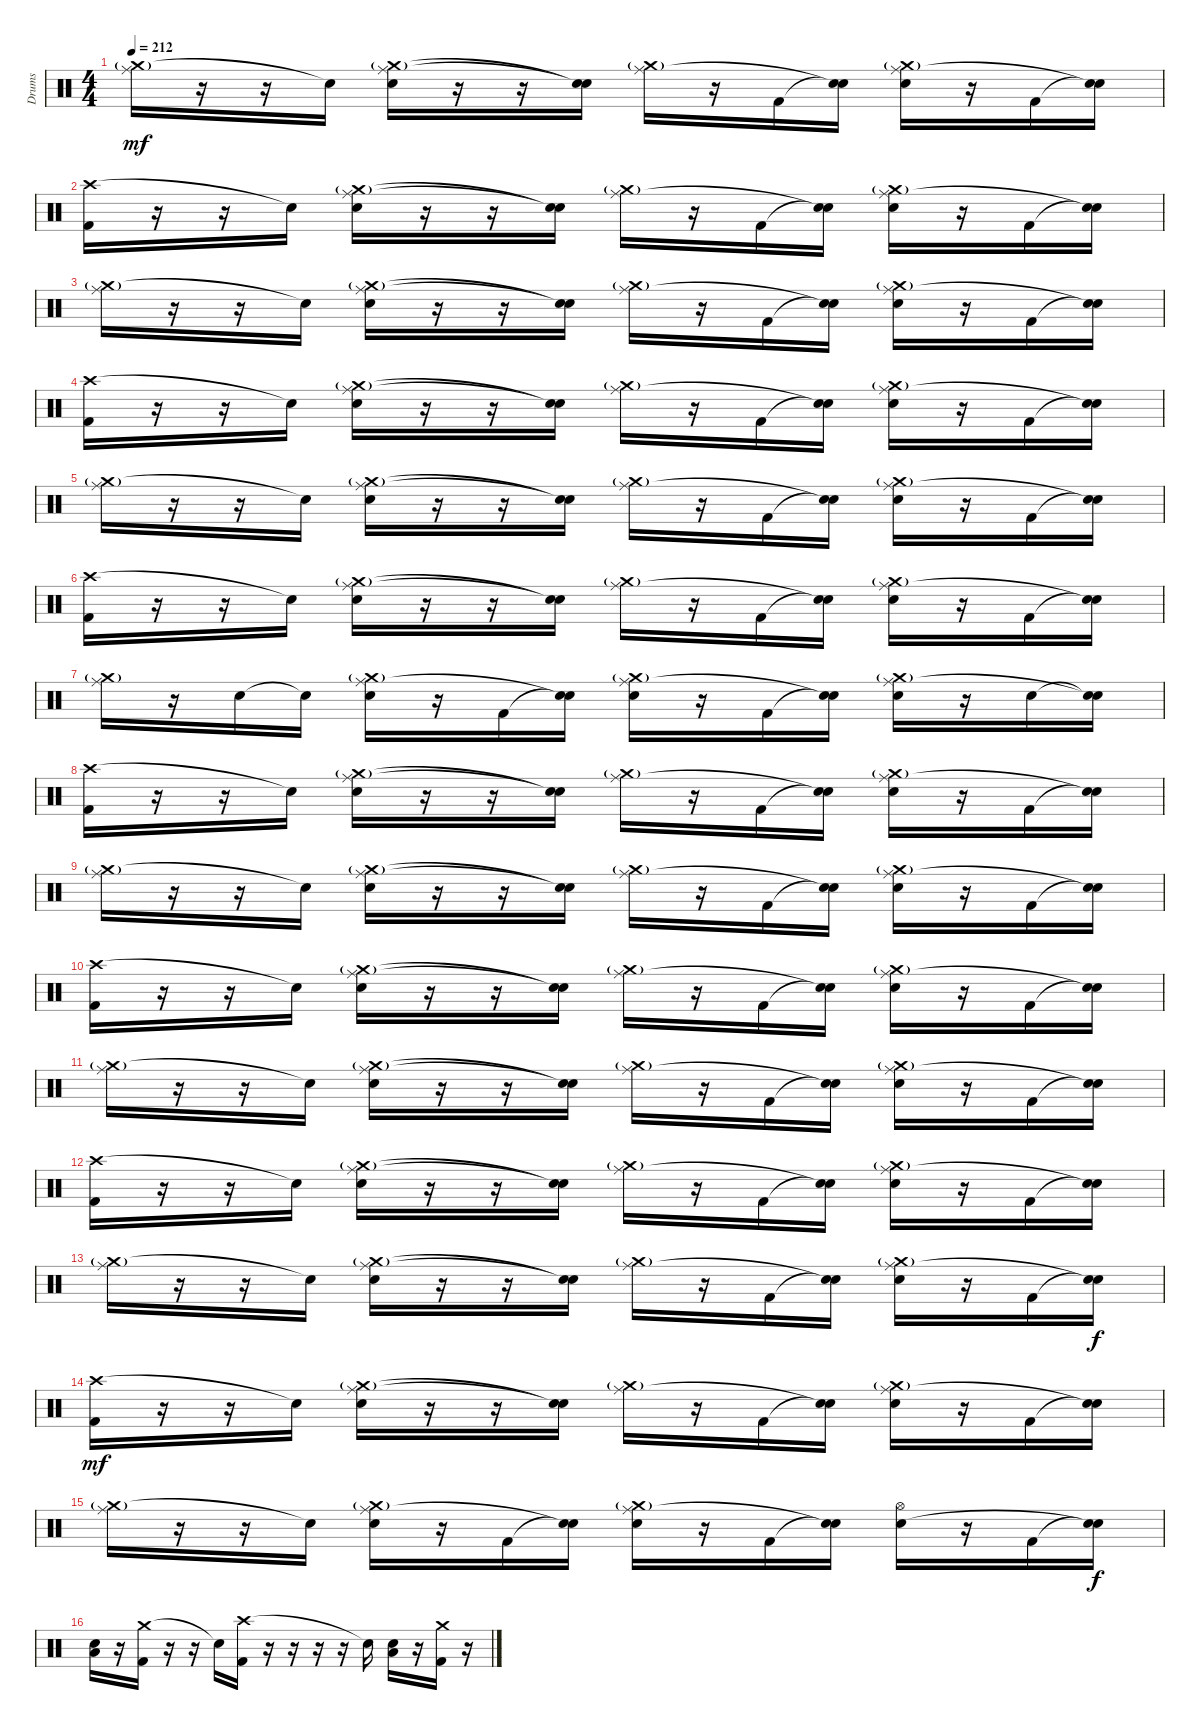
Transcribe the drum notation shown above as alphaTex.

\track ("Drums" "Drums") {instrument percussion}
\staff {score}
\articulation defaults
\ts (4 4)
\tempo 212
\clef neutral
\ks c
("Crash medium (hit)"{g} "Ride (middle)").16{dy mf} r.16 r.16 "Snare (hit)"{t}.16 ("Crash medium (hit)"{g} "Ride (middle)" "Electric Snare (hit)").16 r.16 r.16 ("Snare (hit)"{t} "Snare (hit)"{t}).16 ("Crash medium (hit)"{g} "Ride (middle)").16 r.16 "Kick (hit) 2".16 ("Snare (hit)"{t} "Snare (hit)"{t}).16 ("Crash medium (hit)"{g} "Ride (middle)" "Electric Snare (hit)").16 r.16 "Kick (hit) 2".16 ("Snare (hit)"{t} "Snare (hit)"{t}).16 |
("Crash high (hit)" "Kick (hit) 2").16 r.16 r.16 "Snare (hit)"{t}.16 ("Crash medium (hit)"{g} "Ride (middle)" "Electric Snare (hit)").16 r.16 r.16 ("Snare (hit)"{t} "Snare (hit)"{t}).16 ("Crash medium (hit)"{g} "Ride (middle)").16 r.16 "Kick (hit) 2".16 ("Snare (hit)"{t} "Snare (hit)"{t}).16 ("Crash medium (hit)"{g} "Ride (middle)" "Electric Snare (hit)").16 r.16 "Kick (hit) 2".16 ("Snare (hit)"{t} "Snare (hit)"{t}).16 |
("Crash medium (hit)"{g} "Ride (middle)").16 r.16 r.16 "Snare (hit)"{t}.16 ("Crash medium (hit)"{g} "Ride (middle)" "Electric Snare (hit)").16 r.16 r.16 ("Snare (hit)"{t} "Snare (hit)"{t}).16 ("Crash medium (hit)"{g} "Ride (middle)").16 r.16 "Kick (hit) 2".16 ("Snare (hit)"{t} "Snare (hit)"{t}).16 ("Crash medium (hit)"{g} "Ride (middle)" "Electric Snare (hit)").16 r.16 "Kick (hit) 2".16 ("Snare (hit)"{t} "Snare (hit)"{t}).16 |
("Crash high (hit)" "Kick (hit) 2").16 r.16 r.16 "Snare (hit)"{t}.16 ("Crash medium (hit)"{g} "Ride (middle)" "Electric Snare (hit)").16 r.16 r.16 ("Snare (hit)"{t} "Snare (hit)"{t}).16 ("Crash medium (hit)"{g} "Ride (middle)").16 r.16 "Kick (hit) 2".16 ("Snare (hit)"{t} "Snare (hit)"{t}).16 ("Crash medium (hit)"{g} "Ride (middle)" "Electric Snare (hit)").16 r.16 "Kick (hit) 2".16 ("Snare (hit)"{t} "Snare (hit)"{t}).16 |
("Crash medium (hit)"{g} "Ride (middle)").16 r.16 r.16 "Snare (hit)"{t}.16 ("Crash medium (hit)"{g} "Ride (middle)" "Electric Snare (hit)").16 r.16 r.16 ("Snare (hit)"{t} "Snare (hit)"{t}).16 ("Crash medium (hit)"{g} "Ride (middle)").16 r.16 "Kick (hit) 2".16 ("Snare (hit)"{t} "Snare (hit)"{t}).16 ("Crash medium (hit)"{g} "Ride (middle)" "Electric Snare (hit)").16 r.16 "Kick (hit) 2".16 ("Snare (hit)"{t} "Snare (hit)"{t}).16 |
("Crash high (hit)" "Kick (hit) 2").16 r.16 r.16 "Snare (hit)"{t}.16 ("Crash medium (hit)"{g} "Ride (middle)" "Electric Snare (hit)").16 r.16 r.16 ("Snare (hit)"{t} "Snare (hit)"{t}).16 ("Crash medium (hit)"{g} "Ride (middle)").16 r.16 "Kick (hit) 2".16 ("Snare (hit)"{t} "Snare (hit)"{t}).16 ("Crash medium (hit)"{g} "Ride (middle)" "Electric Snare (hit)").16 r.16 "Kick (hit) 2".16 ("Snare (hit)"{t} "Snare (hit)"{t}).16 |
("Crash medium (hit)"{g} "Ride (middle)").16 r.16 "Electric Snare (hit)".16 "Snare (hit)"{t}.16 ("Crash medium (hit)"{g} "Ride (middle)" "Electric Snare (hit)").16 r.16 "Kick (hit) 2".16 ("Snare (hit)"{t} "Snare (hit)"{t}).16 ("Crash medium (hit)"{g} "Ride (middle)" "Electric Snare (hit)").16 r.16 "Kick (hit) 2".16 ("Snare (hit)"{t} "Snare (hit)"{t}).16 ("Crash medium (hit)"{g} "Ride (middle)" "Electric Snare (hit)").16 r.16 "Electric Snare (hit)".16 ("Snare (hit)"{t} "Snare (hit)"{t}).16 |
("Crash high (hit)" "Kick (hit) 2").16 r.16 r.16 "Snare (hit)"{t}.16 ("Crash medium (hit)"{g} "Ride (middle)" "Electric Snare (hit)").16 r.16 r.16 ("Snare (hit)"{t} "Snare (hit)"{t}).16 ("Crash medium (hit)"{g} "Ride (middle)").16 r.16 "Kick (hit) 2".16 ("Snare (hit)"{t} "Snare (hit)"{t}).16 ("Crash medium (hit)"{g} "Ride (middle)" "Electric Snare (hit)").16 r.16 "Kick (hit) 2".16 ("Snare (hit)"{t} "Snare (hit)"{t}).16 |
("Crash medium (hit)"{g} "Ride (middle)").16 r.16 r.16 "Snare (hit)"{t}.16 ("Crash medium (hit)"{g} "Ride (middle)" "Electric Snare (hit)").16 r.16 r.16 ("Snare (hit)"{t} "Snare (hit)"{t}).16 ("Crash medium (hit)"{g} "Ride (middle)").16 r.16 "Kick (hit) 2".16 ("Snare (hit)"{t} "Snare (hit)"{t}).16 ("Crash medium (hit)"{g} "Ride (middle)" "Electric Snare (hit)").16 r.16 "Kick (hit) 2".16 ("Snare (hit)"{t} "Snare (hit)"{t}).16 |
("Crash high (hit)" "Kick (hit) 2").16 r.16 r.16 "Snare (hit)"{t}.16 ("Crash medium (hit)"{g} "Ride (middle)" "Electric Snare (hit)").16 r.16 r.16 ("Snare (hit)"{t} "Snare (hit)"{t}).16 ("Crash medium (hit)"{g} "Ride (middle)").16 r.16 "Kick (hit) 2".16 ("Snare (hit)"{t} "Snare (hit)"{t}).16 ("Crash medium (hit)"{g} "Ride (middle)" "Electric Snare (hit)").16 r.16 "Kick (hit) 2".16 ("Snare (hit)"{t} "Snare (hit)"{t}).16 |
("Crash medium (hit)"{g} "Ride (middle)").16 r.16 r.16 "Snare (hit)"{t}.16 ("Crash medium (hit)"{g} "Ride (middle)" "Electric Snare (hit)").16 r.16 r.16 ("Snare (hit)"{t} "Snare (hit)"{t}).16 ("Crash medium (hit)"{g} "Ride (middle)").16 r.16 "Kick (hit) 2".16 ("Snare (hit)"{t} "Snare (hit)"{t}).16 ("Crash medium (hit)"{g} "Ride (middle)" "Electric Snare (hit)").16 r.16 "Kick (hit) 2".16 ("Snare (hit)"{t} "Snare (hit)"{t}).16 |
("Crash high (hit)" "Kick (hit) 2").16 r.16 r.16 "Snare (hit)"{t}.16 ("Crash medium (hit)"{g} "Ride (middle)" "Electric Snare (hit)").16 r.16 r.16 ("Snare (hit)"{t} "Snare (hit)"{t}).16 ("Crash medium (hit)"{g} "Ride (middle)").16 r.16 "Kick (hit) 2".16 ("Snare (hit)"{t} "Snare (hit)"{t}).16 ("Crash medium (hit)"{g} "Ride (middle)" "Electric Snare (hit)").16 r.16 "Kick (hit) 2".16 ("Snare (hit)"{t} "Snare (hit)"{t}).16 |
("Crash medium (hit)"{g} "Ride (middle)").16 r.16 r.16 "Snare (hit)"{t}.16 ("Crash medium (hit)"{g} "Ride (middle)" "Electric Snare (hit)").16 r.16 r.16 ("Snare (hit)"{t} "Snare (hit)"{t}).16 ("Crash medium (hit)"{g} "Ride (middle)").16 r.16 "Kick (hit) 2".16 ("Snare (hit)"{t} "Snare (hit)"{t}).16 ("Crash medium (hit)"{g} "Ride (middle)" "Electric Snare (hit)").16 r.16 "Kick (hit) 2".16 ("Snare (hit)"{t} "Snare (hit)"{t}).16{dy f} |
("Crash high (hit)" "Kick (hit) 2").16{dy mf} r.16 r.16 "Snare (hit)"{t}.16 ("Crash medium (hit)"{g} "Ride (middle)" "Electric Snare (hit)").16 r.16 r.16 ("Snare (hit)"{t} "Snare (hit)"{t}).16 ("Crash medium (hit)"{g} "Ride (middle)").16 r.16 "Kick (hit) 2".16 ("Snare (hit)"{t} "Snare (hit)"{t}).16 ("Crash medium (hit)"{g} "Ride (middle)" "Electric Snare (hit)").16 r.16 "Kick (hit) 2".16 ("Snare (hit)"{t} "Snare (hit)"{t}).16 |
("Crash medium (hit)"{g} "Ride (middle)").16 r.16 r.16 "Snare (hit)"{t}.16 ("Crash medium (hit)"{g} "Ride (middle)" "Electric Snare (hit)").16 r.16 "Kick (hit) 2".16 ("Snare (hit)"{t} "Snare (hit)"{t}).16 ("Crash medium (hit)"{g} "Ride (middle)" "Electric Snare (hit)").16 r.16 "Kick (hit) 2".16 ("Snare (hit)"{t} "Snare (hit)"{t}).16 ("Hi-Hat (open)" "Electric Snare (hit)").16 r.16 "Kick (hit) 2".16 ("Snare (hit)"{t} "Snare (hit)"{t}).16{dy f} |
("Low Tom (hit)" "Electric Snare (hit)").16 r.16 ("Crash medium (hit)" "Kick (hit) 2").16 r.16 r.16 "Snare (hit)"{t}.16 ("Crash high (hit)" "Kick (hit) 2").16 r.16 r.16 r.16 r.16 "Snare (hit)"{t}.16 ("Low Tom (hit)" "Electric Snare (hit)").16 r.16 ("Crash medium (hit)" "Kick (hit) 2").16 r.16
